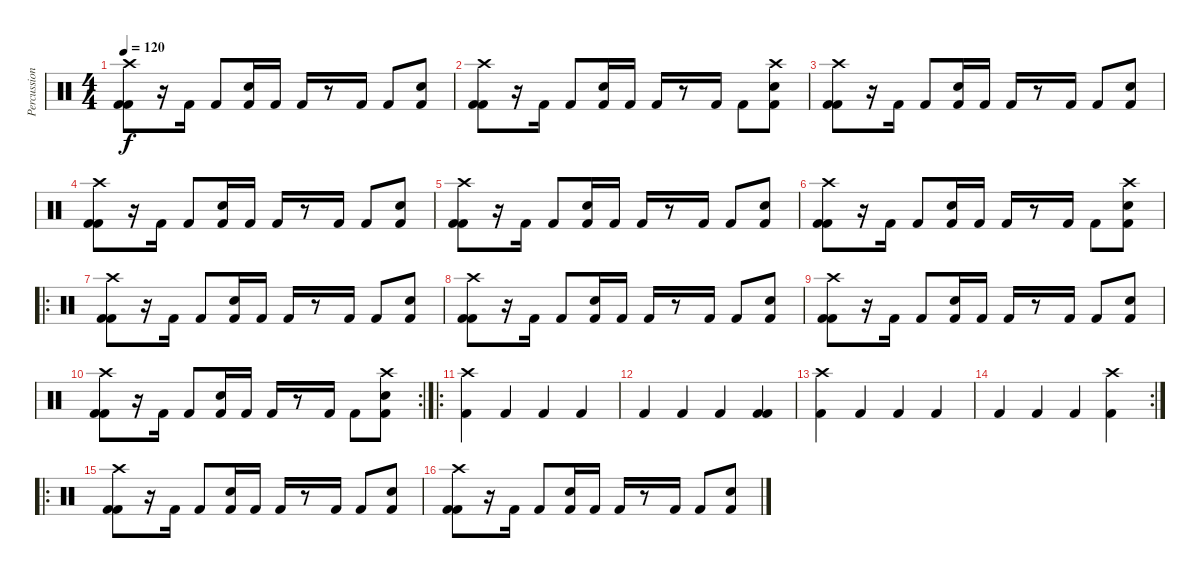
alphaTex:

\track ("Percussion" "Percussion") {instrument percussion}
\staff {score}
\articulation defaults
\ts (4 4)
\tempo 120
\clef neutral
\ks c
("Crash high (hit)" "Kick (hit) 2" "Kick (hit) 2").8{dy f} r.16 "Kick (hit) 2".16 "Kick (hit) 2".8 ("Snare (hit) 2" "Kick (hit) 2").16 "Kick (hit) 2".16 "Kick (hit) 2".16 r.8 "Kick (hit) 2".16 "Kick (hit) 2".8 ("Snare (hit) 2" "Kick (hit) 2").8 |
("Crash high (hit)" "Kick (hit) 2" "Kick (hit) 2").8 r.16 "Kick (hit) 2".16 "Kick (hit) 2".8 ("Snare (hit) 2" "Kick (hit) 2").16 "Kick (hit) 2".16 "Kick (hit) 2".16 r.8 "Kick (hit) 2".16 "Kick (hit) 2".8 ("Crash high (hit)" "Snare (hit) 2" "Kick (hit) 2").8 |
("Crash high (hit)" "Kick (hit) 2" "Kick (hit) 2").8 r.16 "Kick (hit) 2".16 "Kick (hit) 2".8 ("Snare (hit) 2" "Kick (hit) 2").16 "Kick (hit) 2".16 "Kick (hit) 2".16 r.8 "Kick (hit) 2".16 "Kick (hit) 2".8 ("Snare (hit) 2" "Kick (hit) 2").8 |
("Crash high (hit)" "Kick (hit) 2" "Kick (hit) 2").8 r.16 "Kick (hit) 2".16 "Kick (hit) 2".8 ("Snare (hit) 2" "Kick (hit) 2").16 "Kick (hit) 2".16 "Kick (hit) 2".16 r.8 "Kick (hit) 2".16 "Kick (hit) 2".8 ("Snare (hit) 2" "Kick (hit) 2").8 |
("Crash high (hit)" "Kick (hit) 2" "Kick (hit) 2").8 r.16 "Kick (hit) 2".16 "Kick (hit) 2".8 ("Snare (hit) 2" "Kick (hit) 2").16 "Kick (hit) 2".16 "Kick (hit) 2".16 r.8 "Kick (hit) 2".16 "Kick (hit) 2".8 ("Snare (hit) 2" "Kick (hit) 2").8 |
("Crash high (hit)" "Kick (hit) 2" "Kick (hit) 2").8 r.16 "Kick (hit) 2".16 "Kick (hit) 2".8 ("Snare (hit) 2" "Kick (hit) 2").16 "Kick (hit) 2".16 "Kick (hit) 2".16 r.8 "Kick (hit) 2".16 "Kick (hit) 2".8 ("Crash high (hit)" "Snare (hit) 2" "Kick (hit) 2").8 |
\ro
("Crash high (hit)" "Kick (hit) 2" "Kick (hit) 2").8 r.16 "Kick (hit) 2".16 "Kick (hit) 2".8 ("Snare (hit) 2" "Kick (hit) 2").16 "Kick (hit) 2".16 "Kick (hit) 2".16 r.8 "Kick (hit) 2".16 "Kick (hit) 2".8 ("Snare (hit) 2" "Kick (hit) 2").8 |
("Crash high (hit)" "Kick (hit) 2" "Kick (hit) 2").8 r.16 "Kick (hit) 2".16 "Kick (hit) 2".8 ("Snare (hit) 2" "Kick (hit) 2").16 "Kick (hit) 2".16 "Kick (hit) 2".16 r.8 "Kick (hit) 2".16 "Kick (hit) 2".8 ("Snare (hit) 2" "Kick (hit) 2").8 |
("Crash high (hit)" "Kick (hit) 2" "Kick (hit) 2").8 r.16 "Kick (hit) 2".16 "Kick (hit) 2".8 ("Snare (hit) 2" "Kick (hit) 2").16 "Kick (hit) 2".16 "Kick (hit) 2".16 r.8 "Kick (hit) 2".16 "Kick (hit) 2".8 ("Snare (hit) 2" "Kick (hit) 2").8 |
\rc 2
("Crash high (hit)" "Kick (hit) 2" "Kick (hit) 2").8 r.16 "Kick (hit) 2".16 "Kick (hit) 2".8 ("Snare (hit) 2" "Kick (hit) 2").16 "Kick (hit) 2".16 "Kick (hit) 2".16 r.8 "Kick (hit) 2".16 "Kick (hit) 2".8 ("Crash high (hit)" "Snare (hit) 2" "Kick (hit) 2").8 |
\ro
("Crash high (hit)" "Kick (hit) 2").4 "Kick (hit) 2".4 "Kick (hit) 2".4 "Kick (hit) 2".4 |
"Kick (hit) 2".4 "Kick (hit) 2".4 "Kick (hit) 2".4 ("Kick (hit) 2" "Kick (hit) 2").4 |
("Crash high (hit)" "Kick (hit) 2").4 "Kick (hit) 2".4 "Kick (hit) 2".4 "Kick (hit) 2".4 |
\rc 2 "Kick (hit) 2".4 "Kick (hit) 2".4 "Kick (hit) 2".4
("Crash high (hit)" "Kick (hit) 2").4 |
\ro
("Crash high (hit)" "Kick (hit) 2" "Kick (hit) 2").8 r.16 "Kick (hit) 2".16 "Kick (hit) 2".8 ("Snare (hit) 2" "Kick (hit) 2").16 "Kick (hit) 2".16 "Kick (hit) 2".16 r.8 "Kick (hit) 2".16 "Kick (hit) 2".8 ("Snare (hit) 2" "Kick (hit) 2").8 |
("Crash high (hit)" "Kick (hit) 2" "Kick (hit) 2").8 r.16 "Kick (hit) 2".16 "Kick (hit) 2".8 ("Snare (hit) 2" "Kick (hit) 2").16 "Kick (hit) 2".16 "Kick (hit) 2".16 r.8 "Kick (hit) 2".16 "Kick (hit) 2".8 ("Snare (hit) 2" "Kick (hit) 2").8
